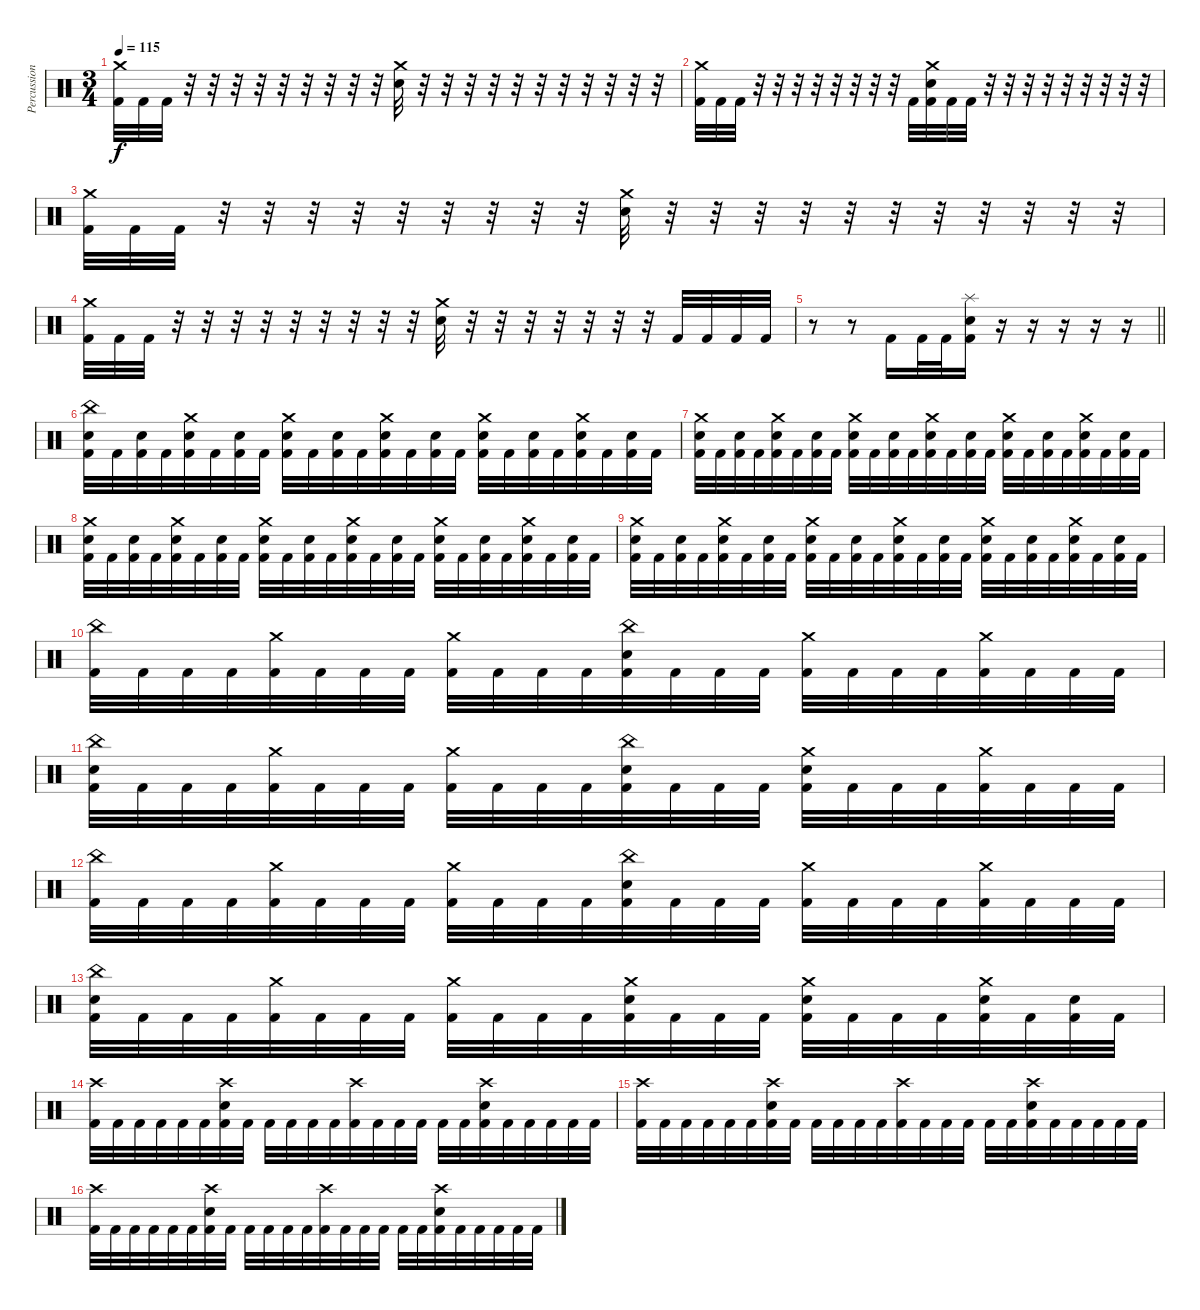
\track ("Percussion" "Percussion") {instrument percussion}
\staff {score}
\articulation defaults
\ts (3 4)
\tempo 115
\clef neutral
\ks c
("Crash medium (hit)" "Kick (hit) 2").32{dy f} "Kick (hit) 2".32 "Kick (hit) 2".32 r.32 r.32 r.32 r.32 r.32 r.32 r.32 r.32 r.32 ("Crash medium (hit)" "Electric Snare (hit)").32 r.32 r.32 r.32 r.32 r.32 r.32 r.32 r.32 r.32 r.32 r.32 |
("Crash medium (hit)" "Kick (hit) 2").32 "Kick (hit) 2".32 "Kick (hit) 2".32 r.32 r.32 r.32 r.32 r.32 r.32 r.32 r.32 "Kick (hit) 2".32 ("Crash medium (hit)" "Electric Snare (hit)" "Kick (hit) 2").32 "Kick (hit) 2".32 "Kick (hit) 2".32 r.32 r.32 r.32 r.32 r.32 r.32 r.32 r.32 r.32 |
("Crash medium (hit)" "Kick (hit) 2").32 "Kick (hit) 2".32 "Kick (hit) 2".32 r.32 r.32 r.32 r.32 r.32 r.32 r.32 r.32 r.32 ("Crash medium (hit)" "Electric Snare (hit)").32 r.32 r.32 r.32 r.32 r.32 r.32 r.32 r.32 r.32 r.32 r.32 |
("Crash medium (hit)" "Kick (hit) 2").32 "Kick (hit) 2".32 "Kick (hit) 2".32 r.32 r.32 r.32 r.32 r.32 r.32 r.32 r.32 r.32 ("Crash medium (hit)" "Electric Snare (hit)").32 r.32 r.32 r.32 r.32 r.32 r.32 r.32 "Kick (hit) 2".32 "Kick (hit) 2".32 "Kick (hit) 2".32 "Kick (hit) 2".32 |
\barLineRight lightlight
r.8 r.8 "Kick (hit) 2".16 "Kick (hit) 2".32 "Kick (hit) 2".32 ("Electric Snare (hit)" "Kick (hit) 2" "Splash (hit)").16 r.16 r.16 r.16 r.16 r.16 |
("Kick (hit) 2" "China (hit)" "Electric Snare (hit)").32 "Kick (hit) 2".32 ("Kick (hit) 2" "Electric Snare (hit)").32 "Kick (hit) 2".32 ("Kick (hit) 2" "Crash medium (hit)" "Electric Snare (hit)").32 "Kick (hit) 2".32 ("Kick (hit) 2" "Electric Snare (hit)").32 "Kick (hit) 2".32 ("Kick (hit) 2" "Crash medium (hit)" "Electric Snare (hit)").32 "Kick (hit) 2".32 ("Kick (hit) 2" "Electric Snare (hit)").32 "Kick (hit) 2".32 ("Kick (hit) 2" "Crash medium (hit)" "Electric Snare (hit)").32 "Kick (hit) 2".32 ("Kick (hit) 2" "Electric Snare (hit)").32 "Kick (hit) 2".32 ("Kick (hit) 2" "Crash medium (hit)" "Electric Snare (hit)").32 "Kick (hit) 2".32 ("Kick (hit) 2" "Electric Snare (hit)").32 "Kick (hit) 2".32 ("Kick (hit) 2" "Crash medium (hit)" "Electric Snare (hit)").32 "Kick (hit) 2".32 ("Kick (hit) 2" "Electric Snare (hit)").32 "Kick (hit) 2".32 |
("Kick (hit) 2" "Crash medium (hit)" "Electric Snare (hit)").32 "Kick (hit) 2".32 ("Kick (hit) 2" "Electric Snare (hit)").32 "Kick (hit) 2".32 ("Kick (hit) 2" "Crash medium (hit)" "Electric Snare (hit)").32 "Kick (hit) 2".32 ("Kick (hit) 2" "Electric Snare (hit)").32 "Kick (hit) 2".32 ("Kick (hit) 2" "Crash medium (hit)" "Electric Snare (hit)").32 "Kick (hit) 2".32 ("Kick (hit) 2" "Electric Snare (hit)").32 "Kick (hit) 2".32 ("Kick (hit) 2" "Crash medium (hit)" "Electric Snare (hit)").32 "Kick (hit) 2".32 ("Kick (hit) 2" "Electric Snare (hit)").32 "Kick (hit) 2".32 ("Kick (hit) 2" "Crash medium (hit)" "Electric Snare (hit)").32 "Kick (hit) 2".32 ("Kick (hit) 2" "Electric Snare (hit)").32 "Kick (hit) 2".32 ("Kick (hit) 2" "Crash medium (hit)" "Electric Snare (hit)").32 "Kick (hit) 2".32 ("Kick (hit) 2" "Electric Snare (hit)").32 "Kick (hit) 2".32 |
("Kick (hit) 2" "Crash medium (hit)" "Electric Snare (hit)").32 "Kick (hit) 2".32 ("Kick (hit) 2" "Electric Snare (hit)").32 "Kick (hit) 2".32 ("Kick (hit) 2" "Crash medium (hit)" "Electric Snare (hit)").32 "Kick (hit) 2".32 ("Kick (hit) 2" "Electric Snare (hit)").32 "Kick (hit) 2".32 ("Kick (hit) 2" "Crash medium (hit)" "Electric Snare (hit)").32 "Kick (hit) 2".32 ("Kick (hit) 2" "Electric Snare (hit)").32 "Kick (hit) 2".32 ("Kick (hit) 2" "Crash medium (hit)" "Electric Snare (hit)").32 "Kick (hit) 2".32 ("Kick (hit) 2" "Electric Snare (hit)").32 "Kick (hit) 2".32 ("Kick (hit) 2" "Crash medium (hit)" "Electric Snare (hit)").32 "Kick (hit) 2".32 ("Kick (hit) 2" "Electric Snare (hit)").32 "Kick (hit) 2".32 ("Kick (hit) 2" "Crash medium (hit)" "Electric Snare (hit)").32 "Kick (hit) 2".32 ("Kick (hit) 2" "Electric Snare (hit)").32 "Kick (hit) 2".32 |
("Kick (hit) 2" "Crash medium (hit)" "Electric Snare (hit)").32 "Kick (hit) 2".32 ("Kick (hit) 2" "Electric Snare (hit)").32 "Kick (hit) 2".32 ("Kick (hit) 2" "Crash medium (hit)" "Electric Snare (hit)").32 "Kick (hit) 2".32 ("Kick (hit) 2" "Electric Snare (hit)").32 "Kick (hit) 2".32 ("Kick (hit) 2" "Crash medium (hit)" "Electric Snare (hit)").32 "Kick (hit) 2".32 ("Kick (hit) 2" "Electric Snare (hit)").32 "Kick (hit) 2".32 ("Kick (hit) 2" "Crash medium (hit)" "Electric Snare (hit)").32 "Kick (hit) 2".32 ("Kick (hit) 2" "Electric Snare (hit)").32 "Kick (hit) 2".32 ("Kick (hit) 2" "Crash medium (hit)" "Electric Snare (hit)").32 "Kick (hit) 2".32 ("Kick (hit) 2" "Electric Snare (hit)").32 "Kick (hit) 2".32 ("Kick (hit) 2" "Crash medium (hit)" "Electric Snare (hit)").32 "Kick (hit) 2".32 ("Kick (hit) 2" "Electric Snare (hit)").32 "Kick (hit) 2".32 |
("Kick (hit) 2" "China (hit)").32 "Kick (hit) 2".32 "Kick (hit) 2".32 "Kick (hit) 2".32 ("Kick (hit) 2" "Crash medium (hit)").32 "Kick (hit) 2".32 "Kick (hit) 2".32 "Kick (hit) 2".32 ("Kick (hit) 2" "Crash medium (hit)").32 "Kick (hit) 2".32 "Kick (hit) 2".32 "Kick (hit) 2".32 ("Kick (hit) 2" "China (hit)" "Electric Snare (hit)").32 "Kick (hit) 2".32 "Kick (hit) 2".32 "Kick (hit) 2".32 ("Kick (hit) 2" "Crash medium (hit)").32 "Kick (hit) 2".32 "Kick (hit) 2".32 "Kick (hit) 2".32 ("Kick (hit) 2" "Crash medium (hit)").32 "Kick (hit) 2".32 "Kick (hit) 2".32 "Kick (hit) 2".32 |
("Kick (hit) 2" "China (hit)" "Electric Snare (hit)").32 "Kick (hit) 2".32 "Kick (hit) 2".32 "Kick (hit) 2".32 ("Kick (hit) 2" "Crash medium (hit)").32 "Kick (hit) 2".32 "Kick (hit) 2".32 "Kick (hit) 2".32 ("Kick (hit) 2" "Crash medium (hit)").32 "Kick (hit) 2".32 "Kick (hit) 2".32 "Kick (hit) 2".32 ("Kick (hit) 2" "China (hit)" "Electric Snare (hit)").32 "Kick (hit) 2".32 "Kick (hit) 2".32 "Kick (hit) 2".32 ("Kick (hit) 2" "Crash medium (hit)" "Electric Snare (hit)").32 "Kick (hit) 2".32 "Kick (hit) 2".32 "Kick (hit) 2".32 ("Kick (hit) 2" "Crash medium (hit)").32 "Kick (hit) 2".32 "Kick (hit) 2".32 "Kick (hit) 2".32 |
("Kick (hit) 2" "China (hit)").32 "Kick (hit) 2".32 "Kick (hit) 2".32 "Kick (hit) 2".32 ("Kick (hit) 2" "Crash medium (hit)").32 "Kick (hit) 2".32 "Kick (hit) 2".32 "Kick (hit) 2".32 ("Kick (hit) 2" "Crash medium (hit)").32 "Kick (hit) 2".32 "Kick (hit) 2".32 "Kick (hit) 2".32 ("Kick (hit) 2" "China (hit)" "Electric Snare (hit)").32 "Kick (hit) 2".32 "Kick (hit) 2".32 "Kick (hit) 2".32 ("Kick (hit) 2" "Crash medium (hit)").32 "Kick (hit) 2".32 "Kick (hit) 2".32 "Kick (hit) 2".32 ("Kick (hit) 2" "Crash medium (hit)").32 "Kick (hit) 2".32 "Kick (hit) 2".32 "Kick (hit) 2".32 |
("Kick (hit) 2" "China (hit)" "Electric Snare (hit)").32 "Kick (hit) 2".32 "Kick (hit) 2".32 "Kick (hit) 2".32 ("Kick (hit) 2" "Crash medium (hit)").32 "Kick (hit) 2".32 "Kick (hit) 2".32 "Kick (hit) 2".32 ("Kick (hit) 2" "Crash medium (hit)").32 "Kick (hit) 2".32 "Kick (hit) 2".32 "Kick (hit) 2".32 ("Kick (hit) 2" "Crash medium (hit)" "Electric Snare (hit)").32 "Kick (hit) 2".32 "Kick (hit) 2".32 "Kick (hit) 2".32 ("Kick (hit) 2" "Crash medium (hit)" "Electric Snare (hit)").32 "Kick (hit) 2".32 "Kick (hit) 2".32 "Kick (hit) 2".32 ("Kick (hit) 2" "Crash medium (hit)" "Electric Snare (hit)").32 "Kick (hit) 2".32 ("Kick (hit) 2" "Electric Snare (hit)").32 "Kick (hit) 2".32 |
("Kick (hit) 2" "Crash high (hit)").32 "Kick (hit) 2".32 "Kick (hit) 2".32 "Kick (hit) 2".32 "Kick (hit) 2".32 "Kick (hit) 2".32 ("Kick (hit) 2" "Crash high (hit)" "Electric Snare (hit)").32 "Kick (hit) 2".32 "Kick (hit) 2".32 "Kick (hit) 2".32 "Kick (hit) 2".32 "Kick (hit) 2".32 ("Kick (hit) 2" "Crash high (hit)").32 "Kick (hit) 2".32 "Kick (hit) 2".32 "Kick (hit) 2".32 "Kick (hit) 2".32 "Kick (hit) 2".32 ("Kick (hit) 2" "Electric Snare (hit)" "Crash high (hit)").32 "Kick (hit) 2".32 "Kick (hit) 2".32 "Kick (hit) 2".32 "Kick (hit) 2".32 "Kick (hit) 2".32 |
("Kick (hit) 2" "Crash high (hit)").32 "Kick (hit) 2".32 "Kick (hit) 2".32 "Kick (hit) 2".32 "Kick (hit) 2".32 "Kick (hit) 2".32 ("Kick (hit) 2" "Crash high (hit)" "Electric Snare (hit)").32 "Kick (hit) 2".32 "Kick (hit) 2".32 "Kick (hit) 2".32 "Kick (hit) 2".32 "Kick (hit) 2".32 ("Kick (hit) 2" "Crash high (hit)").32 "Kick (hit) 2".32 "Kick (hit) 2".32 "Kick (hit) 2".32 "Kick (hit) 2".32 "Kick (hit) 2".32 ("Kick (hit) 2" "Electric Snare (hit)" "Crash high (hit)").32 "Kick (hit) 2".32 "Kick (hit) 2".32 "Kick (hit) 2".32 "Kick (hit) 2".32 "Kick (hit) 2".32 |
("Kick (hit) 2" "Crash high (hit)").32 "Kick (hit) 2".32 "Kick (hit) 2".32 "Kick (hit) 2".32 "Kick (hit) 2".32 "Kick (hit) 2".32 ("Kick (hit) 2" "Crash high (hit)" "Electric Snare (hit)").32 "Kick (hit) 2".32 "Kick (hit) 2".32 "Kick (hit) 2".32 "Kick (hit) 2".32 "Kick (hit) 2".32 ("Kick (hit) 2" "Crash high (hit)").32 "Kick (hit) 2".32 "Kick (hit) 2".32 "Kick (hit) 2".32 "Kick (hit) 2".32 "Kick (hit) 2".32 ("Kick (hit) 2" "Electric Snare (hit)" "Crash high (hit)").32 "Kick (hit) 2".32 "Kick (hit) 2".32 "Kick (hit) 2".32 "Kick (hit) 2".32 "Kick (hit) 2".32
